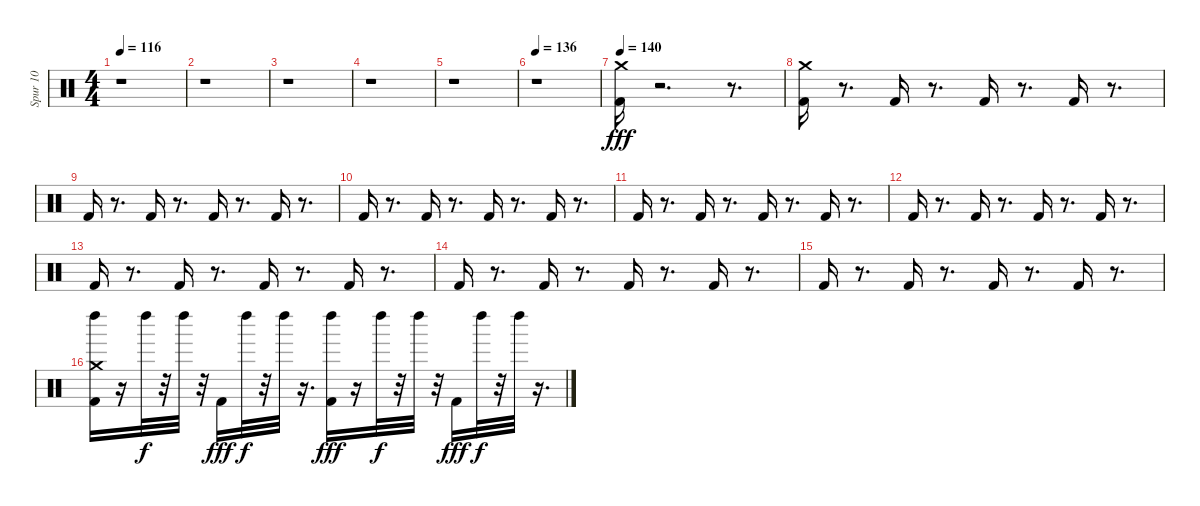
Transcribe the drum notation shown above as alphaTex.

\track ("Spur 10" "Spur 10") {instrument percussion}
\staff {score}
\articulation defaults
\ts (4 4)
\tempo 116
\clef neutral
\ks c
r.1{dy fff} |
r.1 |
r.1 |
r.1 |
r.1 |
\tempo 136
r.1 |
\tempo 140
("Kick (hit) 2" "Crash medium (hit)").16 r.2{d} r.8{d} |
("Kick (hit) 2" "Crash medium (hit)").16 r.8{d} "Kick (hit) 2".16 r.8{d} "Kick (hit) 2".16 r.8{d} "Kick (hit) 2".16 r.8{d} |
"Kick (hit) 2".16 r.8{d} "Kick (hit) 2".16 r.8{d} "Kick (hit) 2".16 r.8{d} "Kick (hit) 2".16 r.8{d} |
"Kick (hit) 2".16 r.8{d} "Kick (hit) 2".16 r.8{d} "Kick (hit) 2".16 r.8{d} "Kick (hit) 2".16 r.8{d} |
"Kick (hit) 2".16 r.8{d} "Kick (hit) 2".16 r.8{d} "Kick (hit) 2".16 r.8{d} "Kick (hit) 2".16 r.8{d} |
"Kick (hit) 2".16 r.8{d} "Kick (hit) 2".16 r.8{d} "Kick (hit) 2".16 r.8{d} "Kick (hit) 2".16 r.8{d} |
"Kick (hit) 2".16 r.8{d} "Kick (hit) 2".16 r.8{d} "Kick (hit) 2".16 r.8{d} "Kick (hit) 2".16 r.8{d} |
"Kick (hit) 2".16 r.8{d} "Kick (hit) 2".16 r.8{d} "Kick (hit) 2".16 r.8{d} "Kick (hit) 2".16 r.8{d} |
"Kick (hit) 2".16 r.8{d} "Kick (hit) 2".16 r.8{d} "Kick (hit) 2".16 r.8{d} "Kick (hit) 2".16 r.8{d} |
("Kick (hit) 2" "Crash medium (hit)" "Left Maraca (hit)").16 r.16 "Left Maraca (hit)".32{dy f} r.32 "Left Maraca (hit)".32 r.32 "Kick (hit) 2".16{dy fff} "Left Maraca (hit)".32{dy f} r.32 "Left Maraca (hit)".32 r.16{d} ("Kick (hit) 2" "Left Maraca (hit)").16{dy fff} r.16 "Left Maraca (hit)".32{dy f} r.32 "Left Maraca (hit)".32 r.32 "Kick (hit) 2".16{dy fff} "Left Maraca (hit)".32{dy f} r.32 "Left Maraca (hit)".32 r.16{d}
